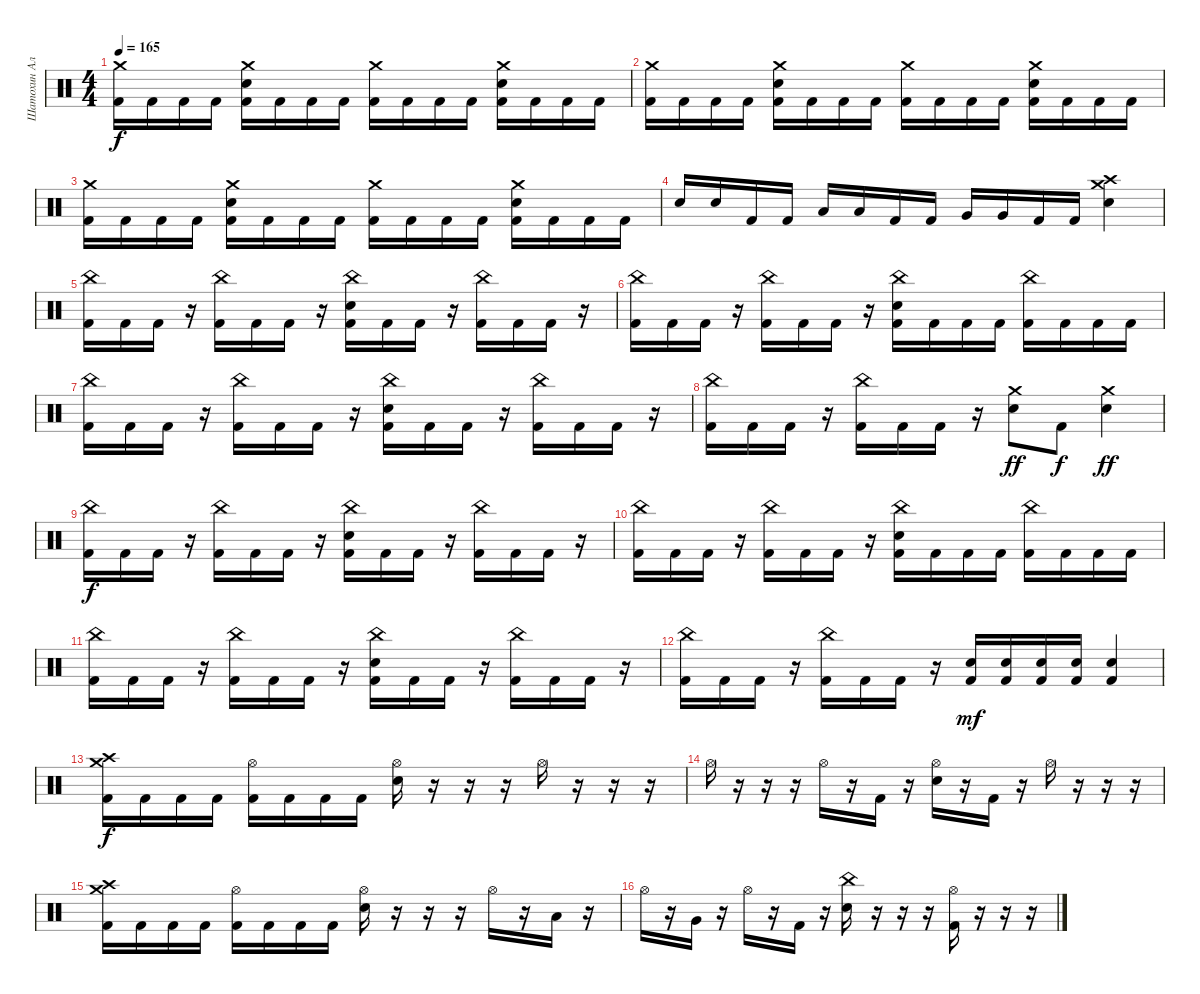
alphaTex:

\track ("Шатохин Алексей" "Шатохин Ал") {instrument percussion}
\staff {score}
\articulation defaults
\ts (4 4)
\tempo 165
\clef neutral
\ks c
("Crash medium (hit)" "Kick (hit) 2").16{dy f} "Kick (hit) 2".16 "Kick (hit) 2".16 "Kick (hit) 2".16 ("Electric Snare (hit)" "Crash medium (hit)" "Kick (hit) 2").16 "Kick (hit) 2".16 "Kick (hit) 2".16 "Kick (hit) 2".16 ("Crash medium (hit)" "Kick (hit) 2").16 "Kick (hit) 2".16 "Kick (hit) 2".16 "Kick (hit) 2".16 ("Crash medium (hit)" "Electric Snare (hit)" "Kick (hit) 2").16 "Kick (hit) 2".16 "Kick (hit) 2".16 "Kick (hit) 2".16 |
("Crash medium (hit)" "Kick (hit) 2").16 "Kick (hit) 2".16 "Kick (hit) 2".16 "Kick (hit) 2".16 ("Electric Snare (hit)" "Crash medium (hit)" "Kick (hit) 2").16 "Kick (hit) 2".16 "Kick (hit) 2".16 "Kick (hit) 2".16 ("Crash medium (hit)" "Kick (hit) 2").16 "Kick (hit) 2".16 "Kick (hit) 2".16 "Kick (hit) 2".16 ("Crash medium (hit)" "Electric Snare (hit)" "Kick (hit) 2").16 "Kick (hit) 2".16 "Kick (hit) 2".16 "Kick (hit) 2".16 |
("Crash medium (hit)" "Kick (hit) 2").16 "Kick (hit) 2".16 "Kick (hit) 2".16 "Kick (hit) 2".16 ("Electric Snare (hit)" "Crash medium (hit)" "Kick (hit) 2").16 "Kick (hit) 2".16 "Kick (hit) 2".16 "Kick (hit) 2".16 ("Crash medium (hit)" "Kick (hit) 2").16 "Kick (hit) 2".16 "Kick (hit) 2".16 "Kick (hit) 2".16 ("Crash medium (hit)" "Electric Snare (hit)" "Kick (hit) 2").16 "Kick (hit) 2".16 "Kick (hit) 2".16 "Kick (hit) 2".16 |
"Electric Snare (hit)".16 "Electric Snare (hit)".16 "Kick (hit) 2".16 "Kick (hit) 2".16 "Low Tom (hit)".16 "Low Tom (hit)".16 "Kick (hit) 2".16 "Kick (hit) 2".16 "Very Low Tom (hit)".16 "Very Low Tom (hit)".16 "Kick (hit) 2".16 "Kick (hit) 2".16 ("Crash medium (hit)" "Crash high (hit)" "Electric Snare (hit)").4 |
("China (hit)" "Kick (hit) 2").16 "Kick (hit) 2".16 "Kick (hit) 2".16 r.16 ("China (hit)" "Kick (hit) 2").16 "Kick (hit) 2".16 "Kick (hit) 2".16 r.16 ("China (hit)" "Electric Snare (hit)" "Kick (hit) 2").16 "Kick (hit) 2".16 "Kick (hit) 2".16 r.16 ("China (hit)" "Kick (hit) 2").16 "Kick (hit) 2".16 "Kick (hit) 2".16 r.16 |
("China (hit)" "Kick (hit) 2").16 "Kick (hit) 2".16 "Kick (hit) 2".16 r.16 ("China (hit)" "Kick (hit) 2").16 "Kick (hit) 2".16 "Kick (hit) 2".16 r.16 ("China (hit)" "Electric Snare (hit)" "Kick (hit) 2").16 "Kick (hit) 2".16 "Kick (hit) 2".16 "Kick (hit) 2".16 ("China (hit)" "Kick (hit) 2").16 "Kick (hit) 2".16 "Kick (hit) 2".16 "Kick (hit) 2".16 |
("China (hit)" "Kick (hit) 2").16 "Kick (hit) 2".16 "Kick (hit) 2".16 r.16 ("China (hit)" "Kick (hit) 2").16 "Kick (hit) 2".16 "Kick (hit) 2".16 r.16 ("China (hit)" "Electric Snare (hit)" "Kick (hit) 2").16 "Kick (hit) 2".16 "Kick (hit) 2".16 r.16 ("China (hit)" "Kick (hit) 2").16 "Kick (hit) 2".16 "Kick (hit) 2".16 r.16 |
("China (hit)" "Kick (hit) 2").16 "Kick (hit) 2".16 "Kick (hit) 2".16 r.16 ("China (hit)" "Kick (hit) 2").16 "Kick (hit) 2".16 "Kick (hit) 2".16 r.16 ("Electric Snare (hit)" "Crash medium (hit)").8{dy ff} "Kick (hit) 2".8{dy f} ("Electric Snare (hit)" "Crash medium (hit)").4{dy ff} |
("China (hit)" "Kick (hit) 2").16{dy f} "Kick (hit) 2".16 "Kick (hit) 2".16 r.16 ("China (hit)" "Kick (hit) 2").16 "Kick (hit) 2".16 "Kick (hit) 2".16 r.16 ("China (hit)" "Electric Snare (hit)" "Kick (hit) 2").16 "Kick (hit) 2".16 "Kick (hit) 2".16 r.16 ("China (hit)" "Kick (hit) 2").16 "Kick (hit) 2".16 "Kick (hit) 2".16 r.16 |
("China (hit)" "Kick (hit) 2").16 "Kick (hit) 2".16 "Kick (hit) 2".16 r.16 ("China (hit)" "Kick (hit) 2").16 "Kick (hit) 2".16 "Kick (hit) 2".16 r.16 ("China (hit)" "Electric Snare (hit)" "Kick (hit) 2").16 "Kick (hit) 2".16 "Kick (hit) 2".16 "Kick (hit) 2".16 ("China (hit)" "Kick (hit) 2").16 "Kick (hit) 2".16 "Kick (hit) 2".16 "Kick (hit) 2".16 |
("China (hit)" "Kick (hit) 2").16 "Kick (hit) 2".16 "Kick (hit) 2".16 r.16 ("China (hit)" "Kick (hit) 2").16 "Kick (hit) 2".16 "Kick (hit) 2".16 r.16 ("China (hit)" "Electric Snare (hit)" "Kick (hit) 2").16 "Kick (hit) 2".16 "Kick (hit) 2".16 r.16 ("China (hit)" "Kick (hit) 2").16 "Kick (hit) 2".16 "Kick (hit) 2".16 r.16 |
("China (hit)" "Kick (hit) 2").16 "Kick (hit) 2".16 "Kick (hit) 2".16 r.16 ("China (hit)" "Kick (hit) 2").16 "Kick (hit) 2".16 "Kick (hit) 2".16 r.16 ("Electric Snare (hit)" "Kick (hit) 2").16{dy mf} ("Electric Snare (hit)" "Kick (hit) 2").16 ("Electric Snare (hit)" "Kick (hit) 2").16 ("Electric Snare (hit)" "Kick (hit) 2").16 ("Electric Snare (hit)" "Kick (hit) 2").4 |
("Crash medium (hit)" "Crash high (hit)" "Kick (hit) 2").16{dy f} "Kick (hit) 2".16 "Kick (hit) 2".16 "Kick (hit) 2".16 ("Hi-Hat (open)" "Kick (hit) 2").16 "Kick (hit) 2".16 "Kick (hit) 2".16 "Kick (hit) 2".16 ("Hi-Hat (open)" "Electric Snare (hit)").16 r.16 r.16 r.16 "Hi-Hat (open)".16 r.16 r.16 r.16 |
"Hi-Hat (open)".16 r.16 r.16 r.16 "Hi-Hat (open)".16 r.16 "Kick (hit) 2".16 r.16 ("Hi-Hat (open)" "Electric Snare (hit)").16 r.16 "Kick (hit) 2".16 r.16 "Hi-Hat (open)".16 r.16 r.16 r.16 |
("Crash high (hit)" "Crash medium (hit)" "Kick (hit) 2").16 "Kick (hit) 2".16 "Kick (hit) 2".16 "Kick (hit) 2".16 ("Hi-Hat (open)" "Kick (hit) 2").16 "Kick (hit) 2".16 "Kick (hit) 2".16 "Kick (hit) 2".16 ("Hi-Hat (open)" "Electric Snare (hit)").16 r.16 r.16 r.16 "Hi-Hat (open)".16 r.16 "Low Tom (hit)".16 r.16 |
"Hi-Hat (open)".16 r.16 "Very Low Tom (hit)".16 r.16 "Hi-Hat (open)".16 r.16 "Kick (hit) 2".16 r.16 ("China (hit)" "Electric Snare (hit)").16 r.16 r.16 r.16 ("Hi-Hat (open)" "Kick (hit) 2").16 r.16 r.16 r.16
